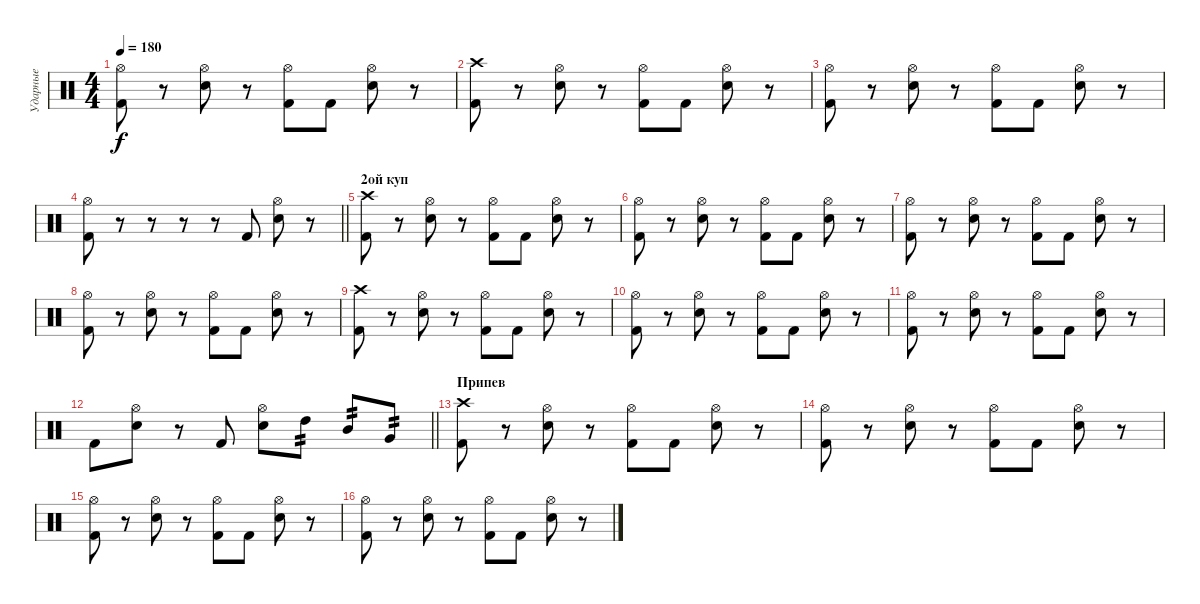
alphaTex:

\track ("Ударные" "Ударные") {instrument percussion}
\staff {score}
\articulation defaults
\ts (4 4)
\tempo 180
\clef neutral
\ks c
("Hi-Hat (open)" "Kick (hit) 2").8{dy f} r.8 ("Hi-Hat (open)" "Electric Snare (hit)").8 r.8 ("Hi-Hat (open)" "Kick (hit) 2").8 "Kick (hit) 2".8 ("Hi-Hat (open)" "Electric Snare (hit)").8 r.8 |
("Crash high (hit)" "Kick (hit) 2").8 r.8 ("Hi-Hat (open)" "Electric Snare (hit)").8 r.8 ("Hi-Hat (open)" "Kick (hit) 2").8 "Kick (hit) 2".8 ("Hi-Hat (open)" "Electric Snare (hit)").8 r.8 |
("Hi-Hat (open)" "Kick (hit) 2").8 r.8 ("Hi-Hat (open)" "Electric Snare (hit)").8 r.8 ("Hi-Hat (open)" "Kick (hit) 2").8 "Kick (hit) 2".8 ("Hi-Hat (open)" "Electric Snare (hit)").8 r.8 |
\barLineRight lightlight
("Hi-Hat (open)" "Kick (hit) 2").8 r.8 r.8 r.8 r.8 "Kick (hit) 2".8 ("Hi-Hat (open)" "Electric Snare (hit)").8 r.8 |
\section ("" "2ой куп")
("Crash high (hit)" "Kick (hit) 2").8 r.8 ("Hi-Hat (open)" "Electric Snare (hit)").8 r.8 ("Hi-Hat (open)" "Kick (hit) 2").8 "Kick (hit) 2".8 ("Hi-Hat (open)" "Electric Snare (hit)").8 r.8 |
("Hi-Hat (open)" "Kick (hit) 2").8 r.8 ("Hi-Hat (open)" "Electric Snare (hit)").8 r.8 ("Hi-Hat (open)" "Kick (hit) 2").8 "Kick (hit) 2".8 ("Hi-Hat (open)" "Electric Snare (hit)").8 r.8 |
("Hi-Hat (open)" "Kick (hit) 2").8 r.8 ("Hi-Hat (open)" "Electric Snare (hit)").8 r.8 ("Hi-Hat (open)" "Kick (hit) 2").8 "Kick (hit) 2".8 ("Hi-Hat (open)" "Electric Snare (hit)").8 r.8 |
("Hi-Hat (open)" "Kick (hit) 2").8 r.8 ("Hi-Hat (open)" "Electric Snare (hit)").8 r.8 ("Hi-Hat (open)" "Kick (hit) 2").8 "Kick (hit) 2".8 ("Hi-Hat (open)" "Electric Snare (hit)").8 r.8 |
("Crash high (hit)" "Kick (hit) 2").8 r.8 ("Hi-Hat (open)" "Electric Snare (hit)").8 r.8 ("Hi-Hat (open)" "Kick (hit) 2").8 "Kick (hit) 2".8 ("Hi-Hat (open)" "Electric Snare (hit)").8 r.8 |
("Hi-Hat (open)" "Kick (hit) 2").8 r.8 ("Hi-Hat (open)" "Electric Snare (hit)").8 r.8 ("Hi-Hat (open)" "Kick (hit) 2").8 "Kick (hit) 2".8 ("Hi-Hat (open)" "Electric Snare (hit)").8 r.8 |
("Hi-Hat (open)" "Kick (hit) 2").8 r.8 ("Hi-Hat (open)" "Electric Snare (hit)").8 r.8 ("Hi-Hat (open)" "Kick (hit) 2").8 "Kick (hit) 2".8 ("Hi-Hat (open)" "Electric Snare (hit)").8 r.8 |
\barLineRight lightlight "Kick (hit) 2".8
("Hi-Hat (open)" "Electric Snare (hit)").8 r.8 "Kick (hit) 2".8 ("Hi-Hat (open)" "Electric Snare (hit)").8 "High Tom (hit)".8{tp 2} "Mid Tom (hit)".8{tp 2} "Very Low Tom (hit)".8{tp 2} |
\section ("" "Припев")
("Crash high (hit)" "Kick (hit) 2").8 r.8 ("Hi-Hat (open)" "Electric Snare (hit)").8 r.8 ("Hi-Hat (open)" "Kick (hit) 2").8 "Kick (hit) 2".8 ("Hi-Hat (open)" "Electric Snare (hit)").8 r.8 |
("Hi-Hat (open)" "Kick (hit) 2").8 r.8 ("Hi-Hat (open)" "Electric Snare (hit)").8 r.8 ("Hi-Hat (open)" "Kick (hit) 2").8 "Kick (hit) 2".8 ("Hi-Hat (open)" "Electric Snare (hit)").8 r.8 |
("Hi-Hat (open)" "Kick (hit) 2").8 r.8 ("Hi-Hat (open)" "Electric Snare (hit)").8 r.8 ("Hi-Hat (open)" "Kick (hit) 2").8 "Kick (hit) 2".8 ("Hi-Hat (open)" "Electric Snare (hit)").8 r.8 |
("Hi-Hat (open)" "Kick (hit) 2").8 r.8 ("Hi-Hat (open)" "Electric Snare (hit)").8 r.8 ("Hi-Hat (open)" "Kick (hit) 2").8 "Kick (hit) 2".8 ("Hi-Hat (open)" "Electric Snare (hit)").8 r.8
